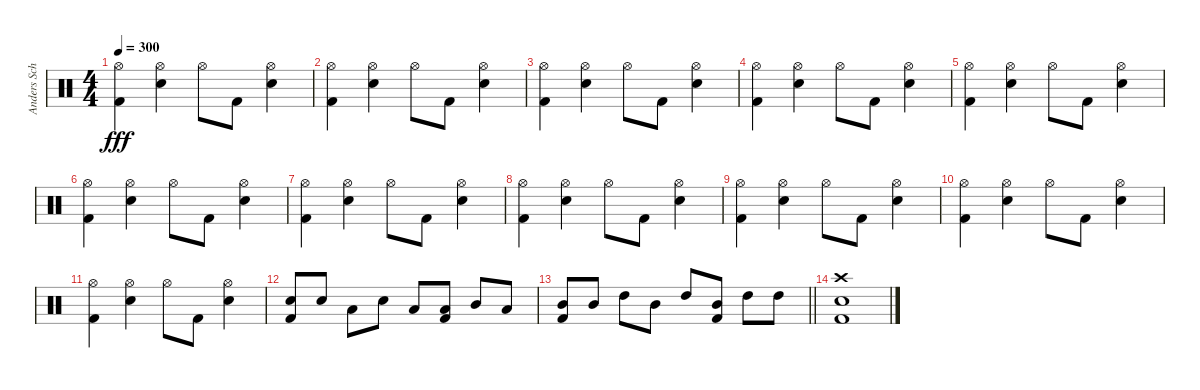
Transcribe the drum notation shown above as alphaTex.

\track ("Anders Schultz" "Anders Sch") {instrument percussion}
\staff {score}
\articulation defaults
\ts (4 4)
\tempo 300
\clef neutral
\ks c
("Hi-Hat (open)" "Kick (hit) 2").4{dy fff} ("Hi-Hat (open)" "Snare (hit) 2").4 "Hi-Hat (open)".8 "Kick (hit) 2".8 ("Hi-Hat (open)" "Snare (hit) 2").4 |
("Hi-Hat (open)" "Kick (hit) 2").4 ("Hi-Hat (open)" "Snare (hit) 2").4 "Hi-Hat (open)".8 "Kick (hit) 2".8 ("Hi-Hat (open)" "Snare (hit) 2").4 |
("Hi-Hat (open)" "Kick (hit) 2").4 ("Hi-Hat (open)" "Snare (hit) 2").4 "Hi-Hat (open)".8 "Kick (hit) 2".8 ("Hi-Hat (open)" "Snare (hit) 2").4 |
("Hi-Hat (open)" "Kick (hit) 2").4 ("Hi-Hat (open)" "Snare (hit) 2").4 "Hi-Hat (open)".8 "Kick (hit) 2".8 ("Hi-Hat (open)" "Snare (hit) 2").4 |
("Hi-Hat (open)" "Kick (hit) 2").4 ("Hi-Hat (open)" "Snare (hit) 2").4 "Hi-Hat (open)".8 "Kick (hit) 2".8 ("Hi-Hat (open)" "Snare (hit) 2").4 |
("Hi-Hat (open)" "Kick (hit) 2").4 ("Hi-Hat (open)" "Snare (hit) 2").4 "Hi-Hat (open)".8 "Kick (hit) 2".8 ("Hi-Hat (open)" "Snare (hit) 2").4 |
("Hi-Hat (open)" "Kick (hit) 2").4 ("Hi-Hat (open)" "Snare (hit) 2").4 "Hi-Hat (open)".8 "Kick (hit) 2".8 ("Hi-Hat (open)" "Snare (hit) 2").4 |
("Hi-Hat (open)" "Kick (hit) 2").4 ("Hi-Hat (open)" "Snare (hit) 2").4 "Hi-Hat (open)".8 "Kick (hit) 2".8 ("Hi-Hat (open)" "Snare (hit) 2").4 |
("Hi-Hat (open)" "Kick (hit) 2").4 ("Hi-Hat (open)" "Snare (hit) 2").4 "Hi-Hat (open)".8 "Kick (hit) 2".8 ("Hi-Hat (open)" "Snare (hit) 2").4 |
("Hi-Hat (open)" "Kick (hit) 2").4 ("Hi-Hat (open)" "Snare (hit) 2").4 "Hi-Hat (open)".8 "Kick (hit) 2".8 ("Hi-Hat (open)" "Snare (hit) 2").4 |
("Hi-Hat (open)" "Kick (hit) 2").4 ("Hi-Hat (open)" "Snare (hit) 2").4 "Hi-Hat (open)".8 "Kick (hit) 2".8 ("Hi-Hat (open)" "Snare (hit) 2").4 |
("Snare (hit) 2" "Kick (hit) 2").8 "Snare (hit) 2".8 "Low Tom (hit)".8 "Snare (hit) 2".8 "Low Tom (hit)".8 ("Low Tom (hit)" "Kick (hit) 2").8 "Mid Tom (hit)".8 "Low Tom (hit)".8 |
\barLineRight lightlight
("Mid Tom (hit)" "Kick (hit) 2").8 "Mid Tom (hit)".8 "High Tom (hit)".8 "Mid Tom (hit)".8 "High Tom (hit)".8 ("Mid Tom (hit)" "Kick (hit) 2").8 "High Tom (hit)".8 "High Tom (hit)".8 |
("Crash high (hit)" "Snare (hit) 2" "Kick (hit) 2").1
